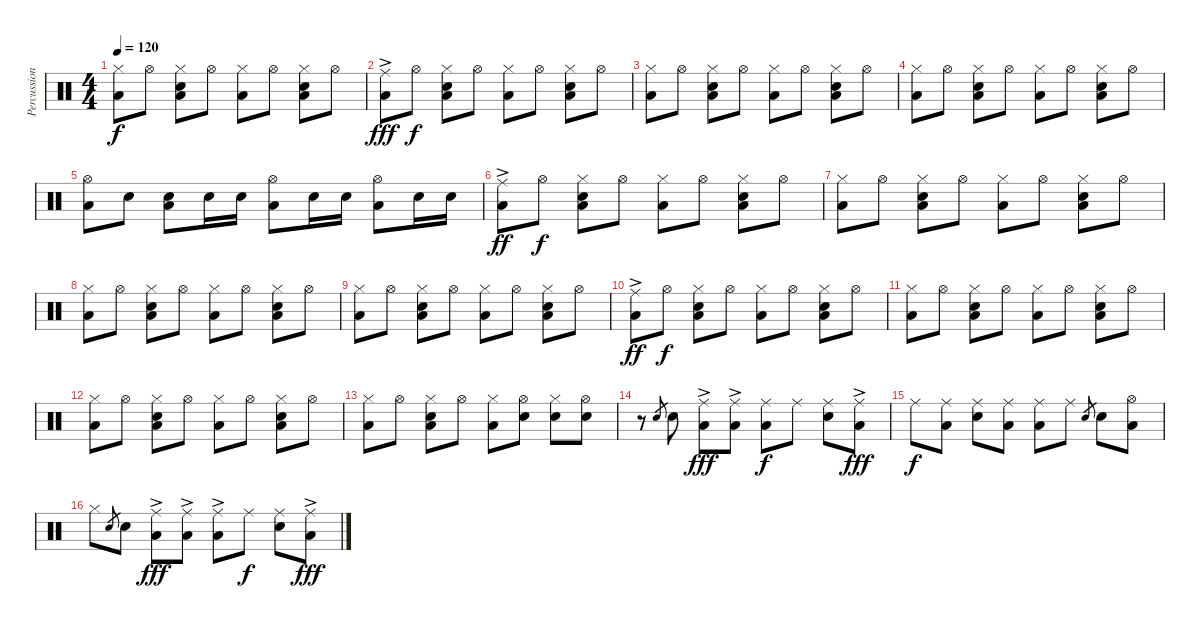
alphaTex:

\track ("Percussion" "Percussion") {instrument percussion}
\staff {score}
\articulation defaults
\ts (4 4)
\tempo 120
\clef neutral
\ks c
("Hi-Hat (closed)" "Low Floor Tom (hit)").8{dy f} "Hi-Hat (open)".8 ("Hi-Hat (closed)" "Snare (hit) 2" "Low Floor Tom (hit)").8 "Hi-Hat (open)".8 ("Hi-Hat (closed)" "Low Floor Tom (hit)").8 "Hi-Hat (open)".8 ("Hi-Hat (closed)" "Snare (hit) 2" "Low Floor Tom (hit)").8 "Hi-Hat (open)".8 |
("Ride (middle)"{ac} "Low Floor Tom (hit)").8{dy fff} "Hi-Hat (open)".8{dy f} ("Hi-Hat (closed)" "Snare (hit) 2" "Low Floor Tom (hit)").8 "Hi-Hat (open)".8 ("Hi-Hat (closed)" "Low Floor Tom (hit)").8 "Hi-Hat (open)".8 ("Hi-Hat (closed)" "Snare (hit) 2" "Low Floor Tom (hit)").8 "Hi-Hat (open)".8 |
("Hi-Hat (closed)" "Low Floor Tom (hit)").8 "Hi-Hat (open)".8 ("Hi-Hat (closed)" "Snare (hit) 2" "Low Floor Tom (hit)").8 "Hi-Hat (open)".8 ("Hi-Hat (closed)" "Low Floor Tom (hit)").8 "Hi-Hat (open)".8 ("Hi-Hat (closed)" "Snare (hit) 2" "Low Floor Tom (hit)").8 "Hi-Hat (open)".8 |
("Hi-Hat (closed)" "Low Floor Tom (hit)").8 "Hi-Hat (open)".8 ("Hi-Hat (closed)" "Snare (hit) 2" "Low Floor Tom (hit)").8 "Hi-Hat (open)".8 ("Hi-Hat (closed)" "Low Floor Tom (hit)").8 "Hi-Hat (open)".8 ("Hi-Hat (closed)" "Snare (hit) 2" "Low Floor Tom (hit)").8 "Hi-Hat (open)".8 |
("Hi-Hat (open)" "Low Floor Tom (hit)").8 "Snare (hit) 2".8 ("Snare (hit) 2" "Low Floor Tom (hit)").8 "Snare (hit) 2".16 "Snare (hit) 2".16 ("Hi-Hat (open)" "Low Floor Tom (hit)").8 "Snare (hit) 2".16 "Snare (hit) 2".16 ("Hi-Hat (open)" "Low Floor Tom (hit)").8 "Snare (hit) 2".16 "Snare (hit) 2".16 |
("Ride (middle)"{ac} "Low Floor Tom (hit)").8{dy ff} "Hi-Hat (open)".8{dy f} ("Hi-Hat (closed)" "Snare (hit) 2" "Low Floor Tom (hit)").8 "Hi-Hat (open)".8 ("Hi-Hat (closed)" "Low Floor Tom (hit)").8 "Hi-Hat (open)".8 ("Hi-Hat (closed)" "Snare (hit) 2" "Low Floor Tom (hit)").8 "Hi-Hat (open)".8 |
("Hi-Hat (closed)" "Low Floor Tom (hit)").8 "Hi-Hat (open)".8 ("Hi-Hat (closed)" "Snare (hit) 2" "Low Floor Tom (hit)").8 "Hi-Hat (open)".8 ("Hi-Hat (closed)" "Low Floor Tom (hit)").8 "Hi-Hat (open)".8 ("Hi-Hat (closed)" "Snare (hit) 2" "Low Floor Tom (hit)").8 "Hi-Hat (open)".8 |
("Hi-Hat (closed)" "Low Floor Tom (hit)").8 "Hi-Hat (open)".8 ("Hi-Hat (closed)" "Snare (hit) 2" "Low Floor Tom (hit)").8 "Hi-Hat (open)".8 ("Hi-Hat (closed)" "Low Floor Tom (hit)").8 "Hi-Hat (open)".8 ("Hi-Hat (closed)" "Snare (hit) 2" "Low Floor Tom (hit)").8 "Hi-Hat (open)".8 |
("Hi-Hat (closed)" "Low Floor Tom (hit)").8 "Hi-Hat (open)".8 ("Hi-Hat (closed)" "Snare (hit) 2" "Low Floor Tom (hit)").8 "Hi-Hat (open)".8 ("Hi-Hat (closed)" "Low Floor Tom (hit)").8 "Hi-Hat (open)".8 ("Hi-Hat (closed)" "Snare (hit) 2" "Low Floor Tom (hit)").8 "Hi-Hat (open)".8 |
("Ride (middle)"{ac} "Low Floor Tom (hit)").8{dy ff} "Hi-Hat (open)".8{dy f} ("Hi-Hat (closed)" "Snare (hit) 2" "Low Floor Tom (hit)").8 "Hi-Hat (open)".8 ("Hi-Hat (closed)" "Low Floor Tom (hit)").8 "Hi-Hat (open)".8 ("Hi-Hat (closed)" "Snare (hit) 2" "Low Floor Tom (hit)").8 "Hi-Hat (open)".8 |
("Hi-Hat (closed)" "Low Floor Tom (hit)").8 "Hi-Hat (open)".8 ("Hi-Hat (closed)" "Snare (hit) 2" "Low Floor Tom (hit)").8 "Hi-Hat (open)".8 ("Hi-Hat (closed)" "Low Floor Tom (hit)").8 "Hi-Hat (open)".8 ("Hi-Hat (closed)" "Snare (hit) 2" "Low Floor Tom (hit)").8 "Hi-Hat (open)".8 |
("Hi-Hat (closed)" "Low Floor Tom (hit)").8 "Hi-Hat (open)".8 ("Hi-Hat (closed)" "Snare (hit) 2" "Low Floor Tom (hit)").8 "Hi-Hat (open)".8 ("Hi-Hat (closed)" "Low Floor Tom (hit)").8 "Hi-Hat (open)".8 ("Hi-Hat (closed)" "Snare (hit) 2" "Low Floor Tom (hit)").8 "Hi-Hat (open)".8 |
("Hi-Hat (closed)" "Low Floor Tom (hit)").8 "Hi-Hat (open)".8 ("Hi-Hat (closed)" "Snare (hit) 2" "Low Floor Tom (hit)").8 "Hi-Hat (open)".8 ("Hi-Hat (closed)" "Low Floor Tom (hit)").8 ("Hi-Hat (open)" "Snare (hit) 2").8 ("Hi-Hat (closed)" "Snare (hit) 2").8 ("Hi-Hat (open)" "Snare (hit) 2").8 |
r.8 "Snare (hit) 2".8{gr} "Snare (hit) 2".8 ("Ride (middle)"{ac} "Low Floor Tom (hit)").8{dy fff} ("Ride (middle)"{ac} "Low Floor Tom (hit)").8 ("Ride (middle)" "Low Floor Tom (hit)").8{dy f} "Ride (middle)".8 ("Ride (middle)" "Snare (hit) 2").8 ("Ride (middle)"{ac} "Low Floor Tom (hit)").8{dy fff} |
"Ride (middle)".8{dy f} ("Ride (middle)" "Low Floor Tom (hit)").8 ("Ride (middle)" "Snare (hit) 2").8 ("Ride (middle)" "Low Floor Tom (hit)").8 ("Ride (middle)" "Low Floor Tom (hit)").8 "Ride (middle)".8 "Snare (hit) 2".8{gr} "Snare (hit) 2".8 ("Hi-Hat (open)" "Low Floor Tom (hit)").8 |
"Hi-Hat (closed)".8 "Snare (hit) 2".8{gr} "Snare (hit) 2".8 ("Ride (middle)"{ac} "Low Floor Tom (hit)").8{dy fff} ("Ride (middle)"{ac} "Low Floor Tom (hit)").8 ("Ride (middle)"{ac} "Low Floor Tom (hit)").8 "Ride (middle)".8{dy f} ("Ride (middle)" "Snare (hit) 2").8 ("Ride (middle)"{ac} "Low Floor Tom (hit)").8{dy fff}
